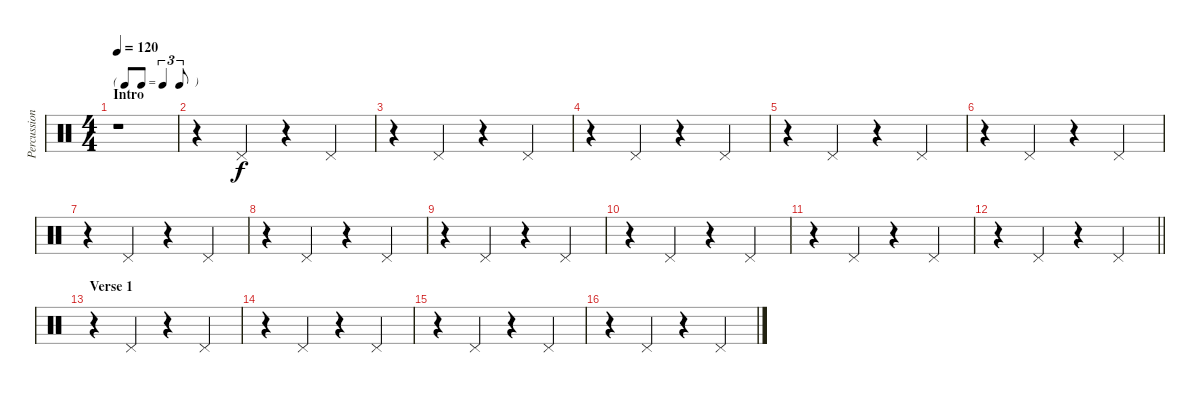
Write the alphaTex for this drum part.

\track ("Percussion" "Percussion") {instrument percussion}
\staff {score}
\articulation defaults
\ts (4 4)
\tf triplet8th
\section ("" "Intro")
\tempo 120
\clef neutral
\ks c
r.1{dy f} |
r.4 "Pedal Hi-Hat (hit)".4 r.4 "Pedal Hi-Hat (hit)".4 |
r.4 "Pedal Hi-Hat (hit)".4 r.4 "Pedal Hi-Hat (hit)".4 |
r.4 "Pedal Hi-Hat (hit)".4 r.4 "Pedal Hi-Hat (hit)".4 |
r.4 "Pedal Hi-Hat (hit)".4 r.4 "Pedal Hi-Hat (hit)".4 |
r.4 "Pedal Hi-Hat (hit)".4 r.4 "Pedal Hi-Hat (hit)".4 |
r.4 "Pedal Hi-Hat (hit)".4 r.4 "Pedal Hi-Hat (hit)".4 |
r.4 "Pedal Hi-Hat (hit)".4 r.4 "Pedal Hi-Hat (hit)".4 |
r.4 "Pedal Hi-Hat (hit)".4 r.4 "Pedal Hi-Hat (hit)".4 |
r.4 "Pedal Hi-Hat (hit)".4 r.4 "Pedal Hi-Hat (hit)".4 |
r.4 "Pedal Hi-Hat (hit)".4 r.4 "Pedal Hi-Hat (hit)".4 |
\barLineRight lightlight
r.4 "Pedal Hi-Hat (hit)".4 r.4 "Pedal Hi-Hat (hit)".4 |
\section ("" "Verse 1")
r.4 "Pedal Hi-Hat (hit)".4 r.4 "Pedal Hi-Hat (hit)".4 |
r.4 "Pedal Hi-Hat (hit)".4 r.4 "Pedal Hi-Hat (hit)".4 |
r.4 "Pedal Hi-Hat (hit)".4 r.4 "Pedal Hi-Hat (hit)".4 |
r.4 "Pedal Hi-Hat (hit)".4 r.4 "Pedal Hi-Hat (hit)".4
